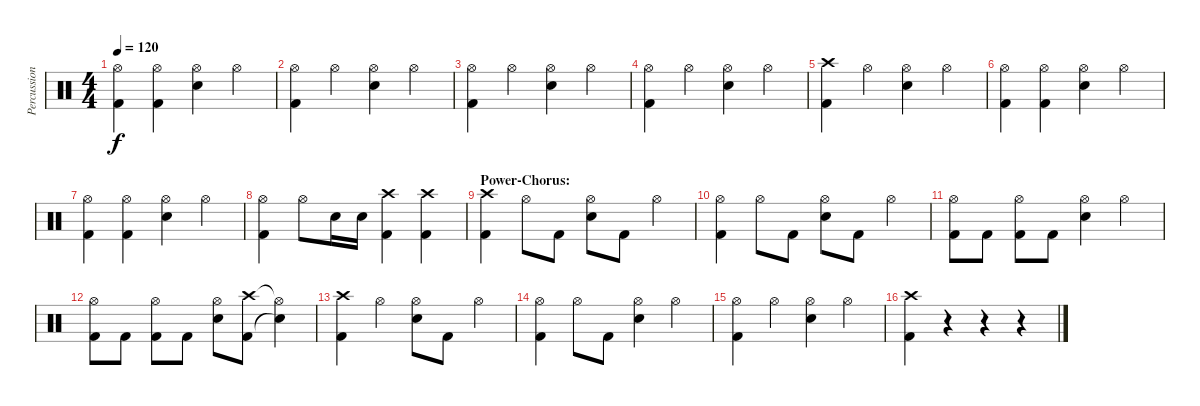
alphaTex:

\track ("Percussion" "Percussion") {instrument percussion}
\staff {score}
\articulation defaults
\ts (4 4)
\tempo 120
\clef neutral
\ks c
("Hi-Hat (open)" "Kick (hit) 2").4{dy f} ("Hi-Hat (open)" "Kick (hit) 2").4 ("Hi-Hat (open)" "Electric Snare (hit)").4 "Hi-Hat (open)".4 |
("Hi-Hat (open)" "Kick (hit) 2").4 "Hi-Hat (open)".4 ("Hi-Hat (open)" "Electric Snare (hit)").4 "Hi-Hat (open)".4 |
("Hi-Hat (open)" "Kick (hit) 2").4 "Hi-Hat (open)".4 ("Hi-Hat (open)" "Electric Snare (hit)").4 "Hi-Hat (open)".4 |
("Hi-Hat (open)" "Kick (hit) 2").4 "Hi-Hat (open)".4 ("Hi-Hat (open)" "Electric Snare (hit)").4 "Hi-Hat (open)".4 |
("Crash high (hit)" "Kick (hit) 2").4 "Hi-Hat (open)".4 ("Hi-Hat (open)" "Electric Snare (hit)").4 "Hi-Hat (open)".4 |
("Hi-Hat (open)" "Kick (hit) 2").4 ("Hi-Hat (open)" "Kick (hit) 2").4 ("Hi-Hat (open)" "Electric Snare (hit)").4 "Hi-Hat (open)".4 |
("Hi-Hat (open)" "Kick (hit) 2").4 ("Hi-Hat (open)" "Kick (hit) 2").4 ("Hi-Hat (open)" "Electric Snare (hit)").4 "Hi-Hat (open)".4 |
("Hi-Hat (open)" "Kick (hit) 2").4 "Hi-Hat (open)".8 "Electric Snare (hit)".16 "Electric Snare (hit)".16 ("Crash high (hit)" "Kick (hit) 2").4 ("Crash high (hit)" "Kick (hit) 2").4 |
\section ("" "Power-Chorus:")
("Crash high (hit)" "Kick (hit) 2").4 "Hi-Hat (open)".8 "Kick (hit) 2".8 ("Hi-Hat (open)" "Electric Snare (hit)").8 "Kick (hit) 2".8 "Hi-Hat (open)".4 |
("Hi-Hat (open)" "Kick (hit) 2").4 "Hi-Hat (open)".8 "Kick (hit) 2".8 ("Hi-Hat (open)" "Electric Snare (hit)").8 "Kick (hit) 2".8 "Hi-Hat (open)".4 |
("Hi-Hat (open)" "Kick (hit) 2").8 "Kick (hit) 2".8 ("Hi-Hat (open)" "Kick (hit) 2").8 "Kick (hit) 2".8 ("Hi-Hat (open)" "Electric Snare (hit)").4 "Hi-Hat (open)".4 |
("Hi-Hat (open)" "Kick (hit) 2").8 "Kick (hit) 2".8 ("Hi-Hat (open)" "Kick (hit) 2").8 "Kick (hit) 2".8 ("Hi-Hat (open)" "Electric Snare (hit)").8 ("Crash high (hit)" "Kick (hit) 2").8 ("Hi-Hat (open)"{t} "Snare (hit)"{t}).4 |
("Crash high (hit)" "Kick (hit) 2").4 "Hi-Hat (open)".4 ("Hi-Hat (open)" "Electric Snare (hit)").8 "Kick (hit) 2".8 "Hi-Hat (open)".4 |
("Hi-Hat (open)" "Kick (hit) 2").4 "Hi-Hat (open)".8 "Kick (hit) 2".8 ("Hi-Hat (open)" "Electric Snare (hit)").4 "Hi-Hat (open)".4 |
("Hi-Hat (open)" "Kick (hit) 2").4 "Hi-Hat (open)".4 ("Hi-Hat (open)" "Electric Snare (hit)").4 "Hi-Hat (open)".4 |
("Crash high (hit)" "Kick (hit) 2").4 r.4 r.4 r.4
